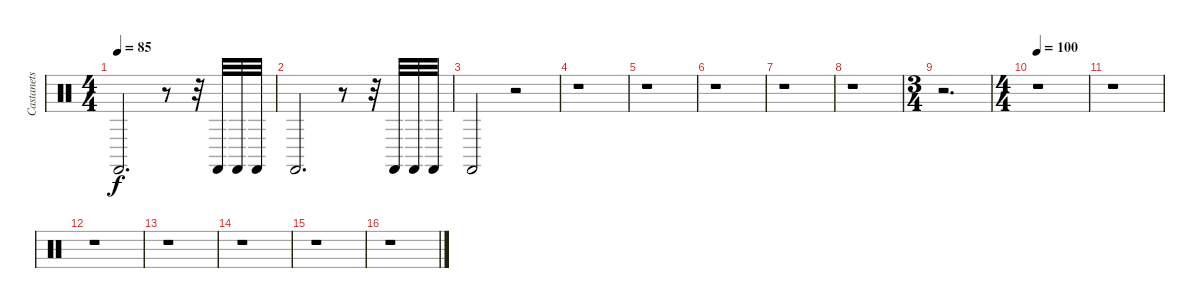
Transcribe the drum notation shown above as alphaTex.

\track ("Castanets" "Castanets") {instrument percussion}
\staff {score}
\articulation defaults
\ts (4 4)
\tempo 85
\clef neutral
\ks c "Castanets (hit)".2{d dy f}
r.8 r.32 "Castanets (hit)".32 "Castanets (hit)".32 "Castanets (hit)".32 |
"Castanets (hit)".2{d} r.8 r.32 "Castanets (hit)".32 "Castanets (hit)".32 "Castanets (hit)".32 |
"Castanets (hit)".2 r.2 |
r.1 |
r.1 |
r.1 |
r.1 |
r.1 |
\ts (3 4)
r.2{d} |
\ts (4 4)
\tempo 100
r.1 |
r.1 |
r.1 |
r.1 |
r.1 |
r.1 |
r.1
